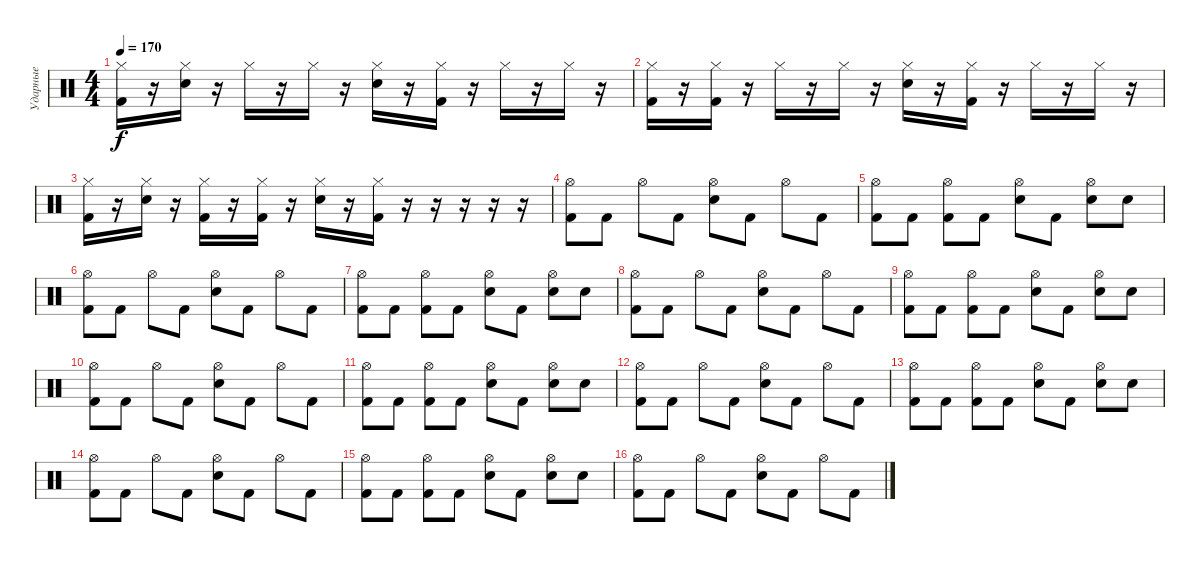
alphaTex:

\track ("Ударные" "Ударные") {instrument percussion}
\staff {score}
\articulation defaults
\ts (4 4)
\tempo 170
\clef neutral
\ks c
("Hi-Hat (closed)" "Kick (hit) 2").16{dy f} r.16 ("Hi-Hat (closed)" "Electric Snare (hit)").16 r.16 "Hi-Hat (closed)".16 r.16 "Hi-Hat (closed)".16 r.16 ("Hi-Hat (closed)" "Electric Snare (hit)").16 r.16 ("Hi-Hat (closed)" "Kick (hit) 2").16 r.16 "Hi-Hat (closed)".16 r.16 "Hi-Hat (closed)".16 r.16 |
("Hi-Hat (closed)" "Kick (hit) 2").16 r.16 ("Hi-Hat (closed)" "Kick (hit) 2").16 r.16 "Hi-Hat (closed)".16 r.16 "Hi-Hat (closed)".16 r.16 ("Hi-Hat (closed)" "Electric Snare (hit)").16 r.16 ("Hi-Hat (closed)" "Kick (hit) 2").16 r.16 "Hi-Hat (closed)".16 r.16 "Hi-Hat (closed)".16 r.16 |
("Hi-Hat (closed)" "Kick (hit) 2").16 r.16 ("Hi-Hat (closed)" "Electric Snare (hit)").16 r.16 ("Hi-Hat (closed)" "Kick (hit) 2").16 r.16 ("Hi-Hat (closed)" "Kick (hit) 2").16 r.16 ("Hi-Hat (closed)" "Electric Snare (hit)").16 r.16 ("Hi-Hat (closed)" "Kick (hit) 2").16 r.16 r.16 r.16 r.16 r.16 |
("Hi-Hat (open)" "Kick (hit) 2").8 "Kick (hit) 2".8 "Hi-Hat (open)".8 "Kick (hit) 2".8 ("Hi-Hat (open)" "Electric Snare (hit)").8 "Kick (hit) 2".8 "Hi-Hat (open)".8 "Kick (hit) 2".8 |
("Hi-Hat (open)" "Kick (hit) 2").8 "Kick (hit) 2".8 ("Hi-Hat (open)" "Kick (hit) 2").8 "Kick (hit) 2".8 ("Hi-Hat (open)" "Electric Snare (hit)").8 "Kick (hit) 2".8 ("Hi-Hat (open)" "Electric Snare (hit)").8 "Electric Snare (hit)".8 |
("Hi-Hat (open)" "Kick (hit) 2").8 "Kick (hit) 2".8 "Hi-Hat (open)".8 "Kick (hit) 2".8 ("Hi-Hat (open)" "Electric Snare (hit)").8 "Kick (hit) 2".8 "Hi-Hat (open)".8 "Kick (hit) 2".8 |
("Hi-Hat (open)" "Kick (hit) 2").8 "Kick (hit) 2".8 ("Hi-Hat (open)" "Kick (hit) 2").8 "Kick (hit) 2".8 ("Hi-Hat (open)" "Electric Snare (hit)").8 "Kick (hit) 2".8 ("Hi-Hat (open)" "Electric Snare (hit)").8 "Electric Snare (hit)".8 |
("Hi-Hat (open)" "Kick (hit) 2").8 "Kick (hit) 2".8 "Hi-Hat (open)".8 "Kick (hit) 2".8 ("Hi-Hat (open)" "Electric Snare (hit)").8 "Kick (hit) 2".8 "Hi-Hat (open)".8 "Kick (hit) 2".8 |
("Hi-Hat (open)" "Kick (hit) 2").8 "Kick (hit) 2".8 ("Hi-Hat (open)" "Kick (hit) 2").8 "Kick (hit) 2".8 ("Hi-Hat (open)" "Electric Snare (hit)").8 "Kick (hit) 2".8 ("Hi-Hat (open)" "Electric Snare (hit)").8 "Electric Snare (hit)".8 |
("Hi-Hat (open)" "Kick (hit) 2").8 "Kick (hit) 2".8 "Hi-Hat (open)".8 "Kick (hit) 2".8 ("Hi-Hat (open)" "Electric Snare (hit)").8 "Kick (hit) 2".8 "Hi-Hat (open)".8 "Kick (hit) 2".8 |
("Hi-Hat (open)" "Kick (hit) 2").8 "Kick (hit) 2".8 ("Hi-Hat (open)" "Kick (hit) 2").8 "Kick (hit) 2".8 ("Hi-Hat (open)" "Electric Snare (hit)").8 "Kick (hit) 2".8 ("Hi-Hat (open)" "Electric Snare (hit)").8 "Electric Snare (hit)".8 |
("Hi-Hat (open)" "Kick (hit) 2").8 "Kick (hit) 2".8 "Hi-Hat (open)".8 "Kick (hit) 2".8 ("Hi-Hat (open)" "Electric Snare (hit)").8 "Kick (hit) 2".8 "Hi-Hat (open)".8 "Kick (hit) 2".8 |
("Hi-Hat (open)" "Kick (hit) 2").8 "Kick (hit) 2".8 ("Hi-Hat (open)" "Kick (hit) 2").8 "Kick (hit) 2".8 ("Hi-Hat (open)" "Electric Snare (hit)").8 "Kick (hit) 2".8 ("Hi-Hat (open)" "Electric Snare (hit)").8 "Electric Snare (hit)".8 |
("Hi-Hat (open)" "Kick (hit) 2").8 "Kick (hit) 2".8 "Hi-Hat (open)".8 "Kick (hit) 2".8 ("Hi-Hat (open)" "Electric Snare (hit)").8 "Kick (hit) 2".8 "Hi-Hat (open)".8 "Kick (hit) 2".8 |
("Hi-Hat (open)" "Kick (hit) 2").8 "Kick (hit) 2".8 ("Hi-Hat (open)" "Kick (hit) 2").8 "Kick (hit) 2".8 ("Hi-Hat (open)" "Electric Snare (hit)").8 "Kick (hit) 2".8 ("Hi-Hat (open)" "Electric Snare (hit)").8 "Electric Snare (hit)".8 |
("Hi-Hat (open)" "Kick (hit) 2").8 "Kick (hit) 2".8 "Hi-Hat (open)".8 "Kick (hit) 2".8 ("Hi-Hat (open)" "Electric Snare (hit)").8 "Kick (hit) 2".8 "Hi-Hat (open)".8 "Kick (hit) 2".8
